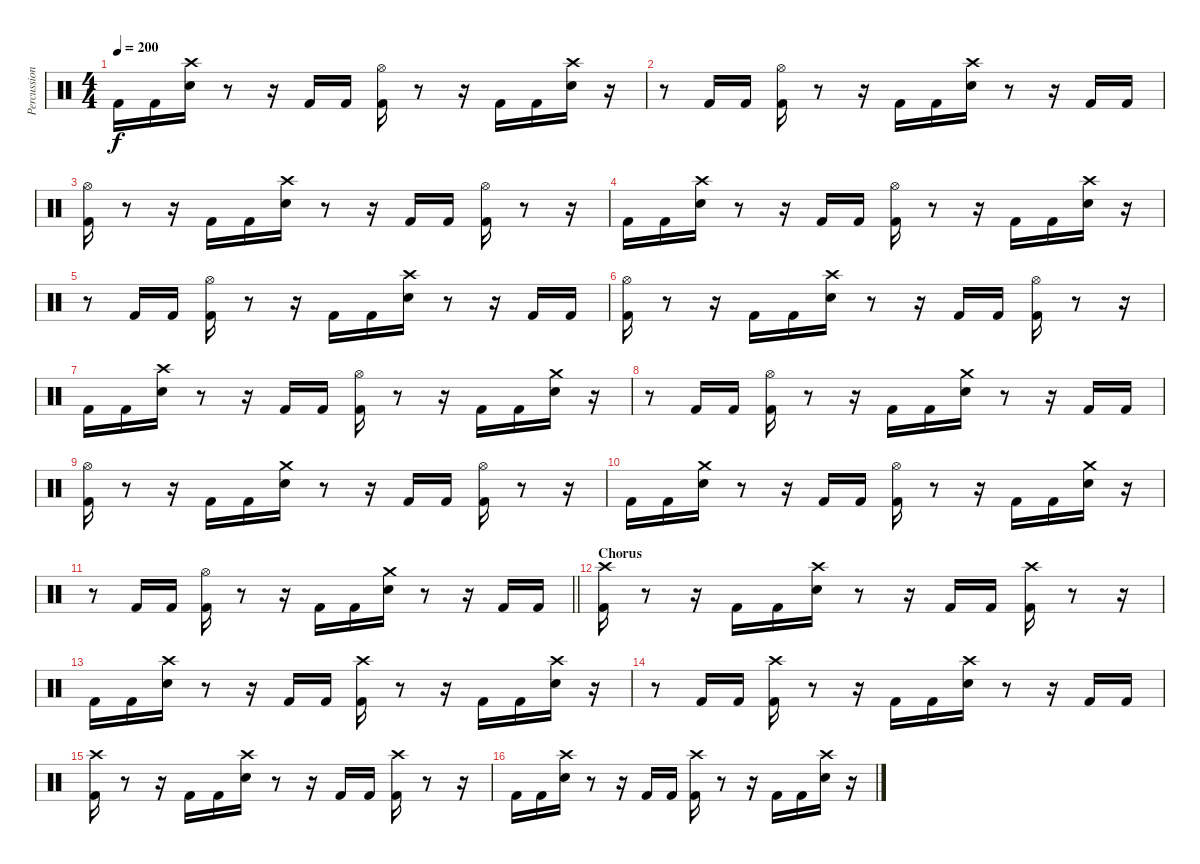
\track ("Percussion" "Percussion") {instrument percussion}
\staff {score}
\articulation defaults
\ts (4 4)
\tempo 200
\clef neutral
\ks c "Kick (hit) 2".16{dy f} "Kick (hit) 2".16
("Crash high (hit)" "Electric Snare (hit)").16 r.8 r.16 "Kick (hit) 2".16 "Kick (hit) 2".16 ("Hi-Hat (open)" "Kick (hit) 2").16 r.8 r.16 "Kick (hit) 2".16 "Kick (hit) 2".16 ("Crash high (hit)" "Electric Snare (hit)").16 r.16 |
r.8 "Kick (hit) 2".16 "Kick (hit) 2".16 ("Hi-Hat (open)" "Kick (hit) 2").16 r.8 r.16 "Kick (hit) 2".16 "Kick (hit) 2".16 ("Crash high (hit)" "Electric Snare (hit)").16 r.8 r.16 "Kick (hit) 2".16 "Kick (hit) 2".16 |
("Hi-Hat (open)" "Kick (hit) 2").16 r.8 r.16 "Kick (hit) 2".16 "Kick (hit) 2".16 ("Crash high (hit)" "Electric Snare (hit)").16 r.8 r.16 "Kick (hit) 2".16 "Kick (hit) 2".16 ("Hi-Hat (open)" "Kick (hit) 2").16 r.8 r.16 |
"Kick (hit) 2".16 "Kick (hit) 2".16 ("Crash high (hit)" "Electric Snare (hit)").16 r.8 r.16 "Kick (hit) 2".16 "Kick (hit) 2".16 ("Hi-Hat (open)" "Kick (hit) 2").16 r.8 r.16 "Kick (hit) 2".16 "Kick (hit) 2".16 ("Crash high (hit)" "Electric Snare (hit)").16 r.16 |
r.8 "Kick (hit) 2".16 "Kick (hit) 2".16 ("Hi-Hat (open)" "Kick (hit) 2").16 r.8 r.16 "Kick (hit) 2".16 "Kick (hit) 2".16 ("Crash high (hit)" "Electric Snare (hit)").16 r.8 r.16 "Kick (hit) 2".16 "Kick (hit) 2".16 |
("Hi-Hat (open)" "Kick (hit) 2").16 r.8 r.16 "Kick (hit) 2".16 "Kick (hit) 2".16 ("Crash high (hit)" "Electric Snare (hit)").16 r.8 r.16 "Kick (hit) 2".16 "Kick (hit) 2".16 ("Hi-Hat (open)" "Kick (hit) 2").16 r.8 r.16 |
"Kick (hit) 2".16 "Kick (hit) 2".16 ("Crash high (hit)" "Electric Snare (hit)").16 r.8 r.16 "Kick (hit) 2".16 "Kick (hit) 2".16 ("Hi-Hat (open)" "Kick (hit) 2").16 r.8 r.16 "Kick (hit) 2".16 "Kick (hit) 2".16 ("Crash medium (hit)" "Electric Snare (hit)").16 r.16 |
r.8 "Kick (hit) 2".16 "Kick (hit) 2".16 ("Hi-Hat (open)" "Kick (hit) 2").16 r.8 r.16 "Kick (hit) 2".16 "Kick (hit) 2".16 ("Crash medium (hit)" "Electric Snare (hit)").16 r.8 r.16 "Kick (hit) 2".16 "Kick (hit) 2".16 |
("Hi-Hat (open)" "Kick (hit) 2").16 r.8 r.16 "Kick (hit) 2".16 "Kick (hit) 2".16 ("Crash medium (hit)" "Electric Snare (hit)").16 r.8 r.16 "Kick (hit) 2".16 "Kick (hit) 2".16 ("Hi-Hat (open)" "Kick (hit) 2").16 r.8 r.16 |
"Kick (hit) 2".16 "Kick (hit) 2".16 ("Crash medium (hit)" "Electric Snare (hit)").16 r.8 r.16 "Kick (hit) 2".16 "Kick (hit) 2".16 ("Hi-Hat (open)" "Kick (hit) 2").16 r.8 r.16 "Kick (hit) 2".16 "Kick (hit) 2".16 ("Crash medium (hit)" "Electric Snare (hit)").16 r.16 |
\barLineRight lightlight
r.8 "Kick (hit) 2".16 "Kick (hit) 2".16 ("Hi-Hat (open)" "Kick (hit) 2").16 r.8 r.16 "Kick (hit) 2".16 "Kick (hit) 2".16 ("Crash medium (hit)" "Electric Snare (hit)").16 r.8 r.16 "Kick (hit) 2".16 "Kick (hit) 2".16 |
\section ("" "Chorus")
("Crash high (hit)" "Kick (hit) 2").16 r.8 r.16 "Kick (hit) 2".16 "Kick (hit) 2".16 ("Crash high (hit)" "Electric Snare (hit)").16 r.8 r.16 "Kick (hit) 2".16 "Kick (hit) 2".16 ("Crash high (hit)" "Kick (hit) 2").16 r.8 r.16 |
"Kick (hit) 2".16 "Kick (hit) 2".16 ("Crash high (hit)" "Electric Snare (hit)").16 r.8 r.16 "Kick (hit) 2".16 "Kick (hit) 2".16 ("Crash high (hit)" "Kick (hit) 2").16 r.8 r.16 "Kick (hit) 2".16 "Kick (hit) 2".16 ("Crash high (hit)" "Electric Snare (hit)").16 r.16 |
r.8 "Kick (hit) 2".16 "Kick (hit) 2".16 ("Crash high (hit)" "Kick (hit) 2").16 r.8 r.16 "Kick (hit) 2".16 "Kick (hit) 2".16 ("Crash high (hit)" "Electric Snare (hit)").16 r.8 r.16 "Kick (hit) 2".16 "Kick (hit) 2".16 |
("Crash high (hit)" "Kick (hit) 2").16 r.8 r.16 "Kick (hit) 2".16 "Kick (hit) 2".16 ("Crash high (hit)" "Electric Snare (hit)").16 r.8 r.16 "Kick (hit) 2".16 "Kick (hit) 2".16 ("Crash high (hit)" "Kick (hit) 2").16 r.8 r.16 |
"Kick (hit) 2".16 "Kick (hit) 2".16 ("Crash high (hit)" "Electric Snare (hit)").16 r.8 r.16 "Kick (hit) 2".16 "Kick (hit) 2".16 ("Crash high (hit)" "Kick (hit) 2").16 r.8 r.16 "Kick (hit) 2".16 "Kick (hit) 2".16 ("Crash high (hit)" "Electric Snare (hit)").16 r.16
